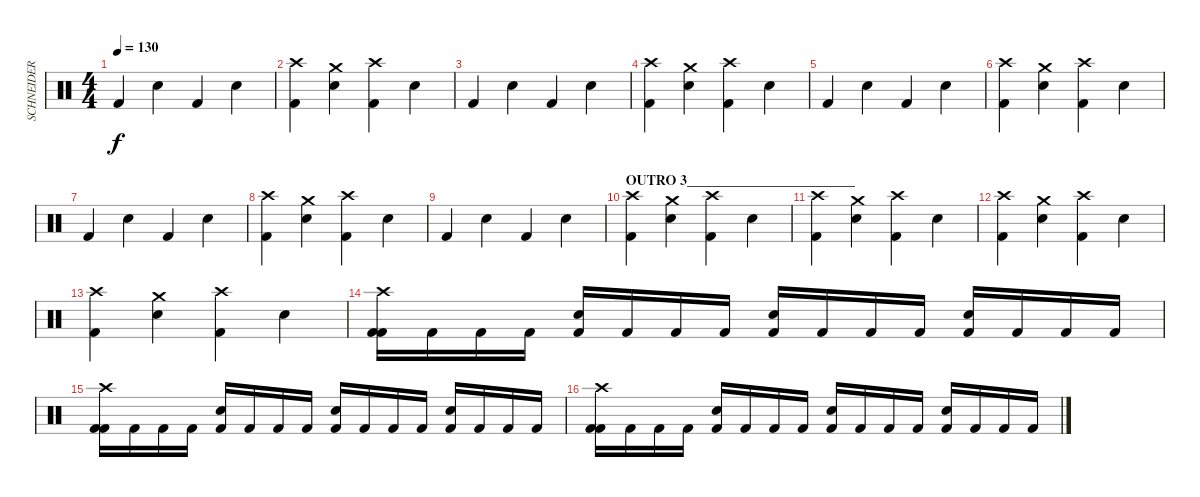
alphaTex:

\track ("SCHNEIDER - Drums" "SCHNEIDER ") {instrument percussion}
\staff {score}
\articulation defaults
\ts (4 4)
\tempo 130
\clef neutral
\ks c "Kick (hit) 2".4{dy f} "Snare (hit) 2".4 "Kick (hit) 2".4 "Snare (hit) 2".4
|
("Crash high (hit)" "Kick (hit) 2").4 ("Crash medium (hit)" "Snare (hit) 2").4 ("Crash high (hit)" "Kick (hit) 2").4 "Snare (hit) 2".4 |
"Kick (hit) 2".4 "Snare (hit) 2".4 "Kick (hit) 2".4 "Snare (hit) 2".4 |
("Crash high (hit)" "Kick (hit) 2").4 ("Crash medium (hit)" "Snare (hit) 2").4 ("Crash high (hit)" "Kick (hit) 2").4 "Snare (hit) 2".4 |
"Kick (hit) 2".4 "Snare (hit) 2".4 "Kick (hit) 2".4 "Snare (hit) 2".4 |
("Crash high (hit)" "Kick (hit) 2").4 ("Crash medium (hit)" "Snare (hit) 2").4 ("Crash high (hit)" "Kick (hit) 2").4 "Snare (hit) 2".4 |
"Kick (hit) 2".4 "Snare (hit) 2".4 "Kick (hit) 2".4 "Snare (hit) 2".4 |
("Crash high (hit)" "Kick (hit) 2").4 ("Crash medium (hit)" "Snare (hit) 2").4 ("Crash high (hit)" "Kick (hit) 2").4 "Snare (hit) 2".4 |
"Kick (hit) 2".4 "Snare (hit) 2".4 "Kick (hit) 2".4 "Snare (hit) 2".4 |
\section ("" "OUTRO 3________________________")
("Crash high (hit)" "Kick (hit) 2").4 ("Crash medium (hit)" "Snare (hit) 2").4 ("Crash high (hit)" "Kick (hit) 2").4 "Snare (hit) 2".4 |
("Crash high (hit)" "Kick (hit) 2").4 ("Crash medium (hit)" "Snare (hit) 2").4 ("Crash high (hit)" "Kick (hit) 2").4 "Snare (hit) 2".4 |
("Crash high (hit)" "Kick (hit) 2").4 ("Crash medium (hit)" "Snare (hit) 2").4 ("Crash high (hit)" "Kick (hit) 2").4 "Snare (hit) 2".4 |
("Crash high (hit)" "Kick (hit) 2").4 ("Crash medium (hit)" "Snare (hit) 2").4 ("Crash high (hit)" "Kick (hit) 2").4 "Snare (hit) 2".4 |
("Crash high (hit)" "Kick (hit) 2" "Kick (hit) 2").16 "Kick (hit) 2".16 "Kick (hit) 2".16 "Kick (hit) 2".16 ("Snare (hit) 2" "Kick (hit) 2").16 "Kick (hit) 2".16 "Kick (hit) 2".16 "Kick (hit) 2".16 ("Snare (hit) 2" "Kick (hit) 2").16 "Kick (hit) 2".16 "Kick (hit) 2".16 "Kick (hit) 2".16 ("Snare (hit) 2" "Kick (hit) 2").16 "Kick (hit) 2".16 "Kick (hit) 2".16 "Kick (hit) 2".16 |
("Crash high (hit)" "Kick (hit) 2" "Kick (hit) 2").16 "Kick (hit) 2".16 "Kick (hit) 2".16 "Kick (hit) 2".16 ("Snare (hit) 2" "Kick (hit) 2").16 "Kick (hit) 2".16 "Kick (hit) 2".16 "Kick (hit) 2".16 ("Snare (hit) 2" "Kick (hit) 2").16 "Kick (hit) 2".16 "Kick (hit) 2".16 "Kick (hit) 2".16 ("Snare (hit) 2" "Kick (hit) 2").16 "Kick (hit) 2".16 "Kick (hit) 2".16 "Kick (hit) 2".16 |
("Crash high (hit)" "Kick (hit) 2" "Kick (hit) 2").16 "Kick (hit) 2".16 "Kick (hit) 2".16 "Kick (hit) 2".16 ("Snare (hit) 2" "Kick (hit) 2").16 "Kick (hit) 2".16 "Kick (hit) 2".16 "Kick (hit) 2".16 ("Snare (hit) 2" "Kick (hit) 2").16 "Kick (hit) 2".16 "Kick (hit) 2".16 "Kick (hit) 2".16 ("Snare (hit) 2" "Kick (hit) 2").16 "Kick (hit) 2".16 "Kick (hit) 2".16 "Kick (hit) 2".16
